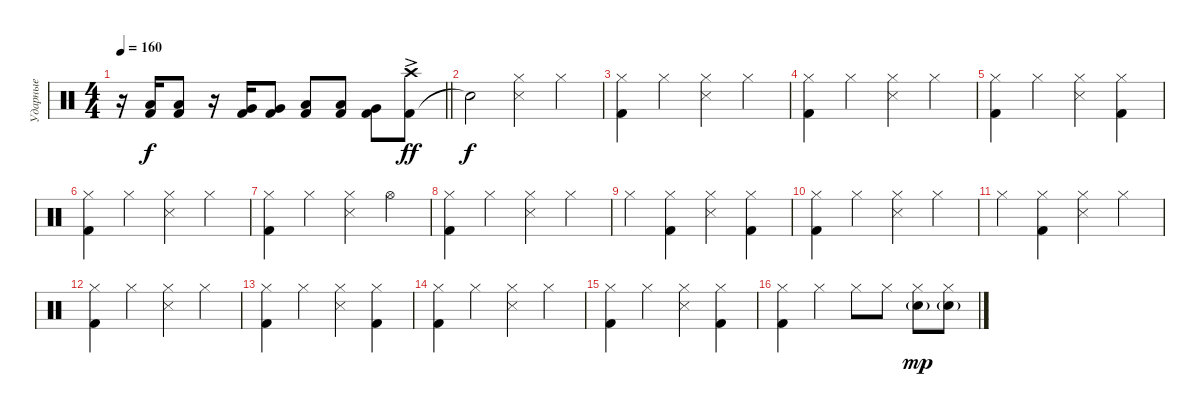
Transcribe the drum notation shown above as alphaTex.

\track ("Ударные" "Ударные") {instrument percussion}
\staff
\articulation defaults
\ts (4 4)
\tempo 160
\clef neutral
\barLineRight lightlight
\ks c
r.16{dy f} ("Kick (hit) 2" "Low Tom (hit)").16 ("Kick (hit) 2" "Low Tom (hit)").8 r.16 ("Kick (hit) 2" "Very Low Tom (hit)").16 ("Kick (hit) 2" "Very Low Tom (hit)").8 ("Kick (hit) 2" "Low Tom (hit)").8 ("Kick (hit) 2" "Low Tom (hit)").8 ("Kick (hit) 2" "Very Low Tom (hit)").8 ("Kick (hit) 2" "Crash high (hit)"{ac}).8{dy ff} |
"Snare (hit)"{t}.2{dy f} ("Snare (side stick) 3" "Hi-Hat (closed)").4 "Hi-Hat (closed)".4 |
("Kick (hit) 2" "Hi-Hat (closed)").4 "Hi-Hat (closed)".4 ("Snare (side stick) 3" "Hi-Hat (closed)").4 "Hi-Hat (closed)".4 |
("Kick (hit) 2" "Hi-Hat (closed)").4 "Hi-Hat (closed)".4 ("Snare (side stick) 3" "Hi-Hat (closed)").4 "Hi-Hat (closed)".4 |
("Kick (hit) 2" "Hi-Hat (closed)").4 "Hi-Hat (closed)".4 ("Snare (side stick) 3" "Hi-Hat (closed)").4 ("Kick (hit) 2" "Hi-Hat (closed)").4 |
("Kick (hit) 2" "Hi-Hat (closed)").4 "Hi-Hat (closed)".4 ("Snare (side stick) 3" "Hi-Hat (closed)").4 "Hi-Hat (closed)".4 |
("Kick (hit) 2" "Hi-Hat (closed)").4 "Hi-Hat (closed)".4 ("Snare (side stick) 3" "Hi-Hat (closed)").4 "Hi-Hat (open)".4 |
("Kick (hit) 2" "Hi-Hat (closed)").4 "Hi-Hat (closed)".4 ("Snare (side stick) 3" "Hi-Hat (closed)").4 "Hi-Hat (closed)".4 |
"Hi-Hat (closed)".4 ("Kick (hit) 2" "Hi-Hat (closed)").4 ("Snare (side stick) 3" "Hi-Hat (closed)").4 ("Kick (hit) 2" "Hi-Hat (closed)").4 |
("Kick (hit) 2" "Hi-Hat (closed)").4 "Hi-Hat (closed)".4 ("Snare (side stick) 3" "Hi-Hat (closed)").4 "Hi-Hat (closed)".4 |
"Hi-Hat (closed)".4 ("Kick (hit) 2" "Hi-Hat (closed)").4 ("Snare (side stick) 3" "Hi-Hat (closed)").4 "Hi-Hat (closed)".4 |
("Kick (hit) 2" "Hi-Hat (closed)").4 "Hi-Hat (closed)".4 ("Snare (side stick) 3" "Hi-Hat (closed)").4 "Hi-Hat (closed)".4 |
("Kick (hit) 2" "Hi-Hat (closed)").4 "Hi-Hat (closed)".4 ("Snare (side stick) 3" "Hi-Hat (closed)").4 ("Kick (hit) 2" "Hi-Hat (closed)").4 |
("Kick (hit) 2" "Hi-Hat (closed)").4 "Hi-Hat (closed)".4 ("Snare (side stick) 3" "Hi-Hat (closed)").4 "Hi-Hat (closed)".4 |
("Kick (hit) 2" "Hi-Hat (closed)").4 "Hi-Hat (closed)".4 ("Snare (side stick) 3" "Hi-Hat (closed)").4 ("Kick (hit) 2" "Hi-Hat (closed)").4 |
("Kick (hit) 2" "Hi-Hat (closed)").4 "Hi-Hat (closed)".4 "Hi-Hat (closed)".8 "Hi-Hat (closed)".8 ("Snare (hit) 2"{g} "Hi-Hat (closed)").8{dy mp} ("Snare (hit) 2"{g} "Hi-Hat (closed)").8
